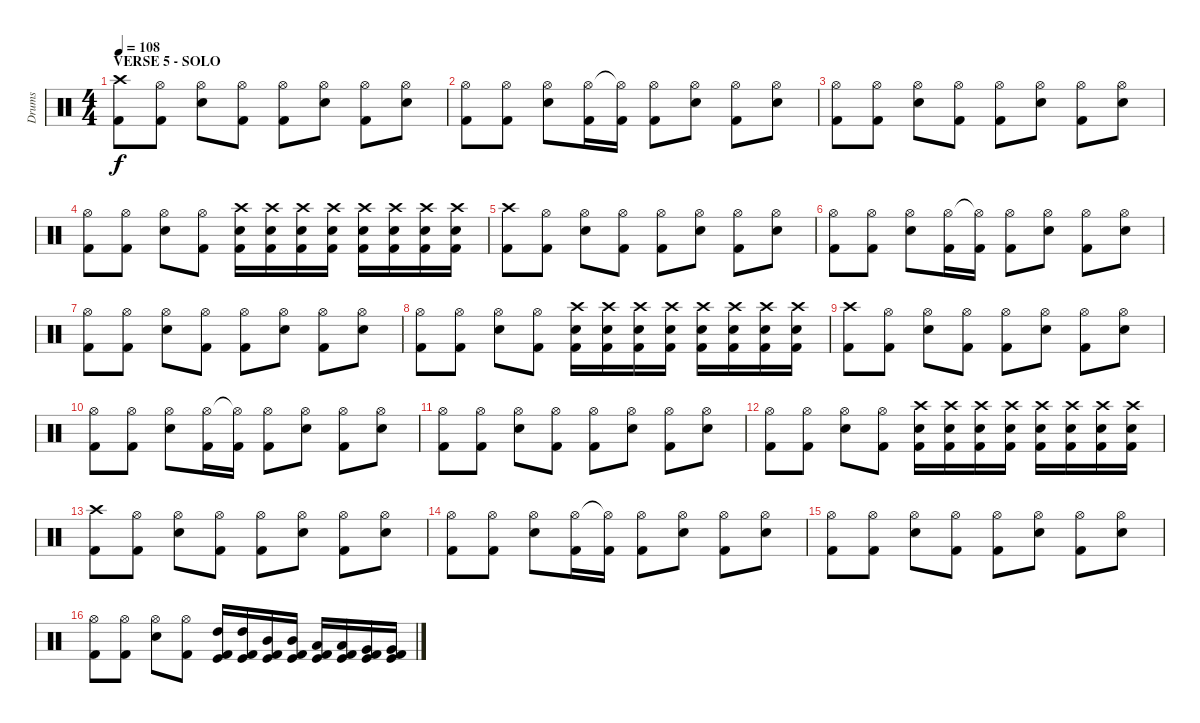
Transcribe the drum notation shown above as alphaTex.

\track ("Drums" "Drums") {instrument percussion}
\staff {score}
\articulation defaults
\ts (4 4)
\section ("" "VERSE 5 - SOLO")
\tempo 108
\clef neutral
\ks c
("Crash high (hit)" "Kick (hit) 2").8{dy f} ("Hi-Hat (open)" "Kick (hit) 2").8 ("Hi-Hat (open)" "Electric Snare (hit)").8 ("Hi-Hat (open)" "Kick (hit) 2").8 ("Hi-Hat (open)" "Kick (hit) 2").8 ("Hi-Hat (open)" "Electric Snare (hit)").8 ("Hi-Hat (open)" "Kick (hit) 2").8 ("Hi-Hat (open)" "Electric Snare (hit)").8 |
("Hi-Hat (open)" "Kick (hit) 2").8 ("Hi-Hat (open)" "Kick (hit) 2").8 ("Hi-Hat (open)" "Electric Snare (hit)").8 ("Hi-Hat (open)" "Kick (hit) 2").16 ("Hi-Hat (open)"{t} "Kick (hit) 2").16 ("Hi-Hat (open)" "Kick (hit) 2").8 ("Hi-Hat (open)" "Electric Snare (hit)").8 ("Hi-Hat (open)" "Kick (hit) 2").8 ("Hi-Hat (open)" "Electric Snare (hit)").8 |
("Hi-Hat (open)" "Kick (hit) 2").8 ("Hi-Hat (open)" "Kick (hit) 2").8 ("Hi-Hat (open)" "Electric Snare (hit)").8 ("Hi-Hat (open)" "Kick (hit) 2").8 ("Hi-Hat (open)" "Kick (hit) 2").8 ("Hi-Hat (open)" "Electric Snare (hit)").8 ("Hi-Hat (open)" "Kick (hit) 2").8 ("Hi-Hat (open)" "Electric Snare (hit)").8 |
("Hi-Hat (open)" "Kick (hit) 2").8 ("Hi-Hat (open)" "Kick (hit) 2").8 ("Hi-Hat (open)" "Electric Snare (hit)").8 ("Hi-Hat (open)" "Kick (hit) 2").8 ("Crash high (hit)" "Kick (hit) 2" "Electric Snare (hit)").16 ("Crash high (hit)" "Kick (hit) 2" "Electric Snare (hit)").16 ("Crash high (hit)" "Kick (hit) 2" "Electric Snare (hit)").16 ("Crash high (hit)" "Kick (hit) 2" "Electric Snare (hit)").16 ("Crash high (hit)" "Kick (hit) 2" "Electric Snare (hit)").16 ("Crash high (hit)" "Kick (hit) 2" "Electric Snare (hit)").16 ("Crash high (hit)" "Kick (hit) 2" "Electric Snare (hit)").16 ("Crash high (hit)" "Kick (hit) 2" "Electric Snare (hit)").16 |
("Crash high (hit)" "Kick (hit) 2").8 ("Hi-Hat (open)" "Kick (hit) 2").8 ("Hi-Hat (open)" "Electric Snare (hit)").8 ("Hi-Hat (open)" "Kick (hit) 2").8 ("Hi-Hat (open)" "Kick (hit) 2").8 ("Hi-Hat (open)" "Electric Snare (hit)").8 ("Hi-Hat (open)" "Kick (hit) 2").8 ("Hi-Hat (open)" "Electric Snare (hit)").8 |
("Hi-Hat (open)" "Kick (hit) 2").8 ("Hi-Hat (open)" "Kick (hit) 2").8 ("Hi-Hat (open)" "Electric Snare (hit)").8 ("Hi-Hat (open)" "Kick (hit) 2").16 ("Hi-Hat (open)"{t} "Kick (hit) 2").16 ("Hi-Hat (open)" "Kick (hit) 2").8 ("Hi-Hat (open)" "Electric Snare (hit)").8 ("Hi-Hat (open)" "Kick (hit) 2").8 ("Hi-Hat (open)" "Electric Snare (hit)").8 |
("Hi-Hat (open)" "Kick (hit) 2").8 ("Hi-Hat (open)" "Kick (hit) 2").8 ("Hi-Hat (open)" "Electric Snare (hit)").8 ("Hi-Hat (open)" "Kick (hit) 2").8 ("Hi-Hat (open)" "Kick (hit) 2").8 ("Hi-Hat (open)" "Electric Snare (hit)").8 ("Hi-Hat (open)" "Kick (hit) 2").8 ("Hi-Hat (open)" "Electric Snare (hit)").8 |
("Hi-Hat (open)" "Kick (hit) 2").8 ("Hi-Hat (open)" "Kick (hit) 2").8 ("Hi-Hat (open)" "Electric Snare (hit)").8 ("Hi-Hat (open)" "Kick (hit) 2").8 ("Crash high (hit)" "Kick (hit) 2" "Electric Snare (hit)").16 ("Crash high (hit)" "Kick (hit) 2" "Electric Snare (hit)").16 ("Crash high (hit)" "Kick (hit) 2" "Electric Snare (hit)").16 ("Crash high (hit)" "Kick (hit) 2" "Electric Snare (hit)").16 ("Crash high (hit)" "Kick (hit) 2" "Electric Snare (hit)").16 ("Crash high (hit)" "Kick (hit) 2" "Electric Snare (hit)").16 ("Crash high (hit)" "Kick (hit) 2" "Electric Snare (hit)").16 ("Crash high (hit)" "Kick (hit) 2" "Electric Snare (hit)").16 |
("Crash high (hit)" "Kick (hit) 2").8 ("Hi-Hat (open)" "Kick (hit) 2").8 ("Hi-Hat (open)" "Electric Snare (hit)").8 ("Hi-Hat (open)" "Kick (hit) 2").8 ("Hi-Hat (open)" "Kick (hit) 2").8 ("Hi-Hat (open)" "Electric Snare (hit)").8 ("Hi-Hat (open)" "Kick (hit) 2").8 ("Hi-Hat (open)" "Electric Snare (hit)").8 |
("Hi-Hat (open)" "Kick (hit) 2").8 ("Hi-Hat (open)" "Kick (hit) 2").8 ("Hi-Hat (open)" "Electric Snare (hit)").8 ("Hi-Hat (open)" "Kick (hit) 2").16 ("Hi-Hat (open)"{t} "Kick (hit) 2").16 ("Hi-Hat (open)" "Kick (hit) 2").8 ("Hi-Hat (open)" "Electric Snare (hit)").8 ("Hi-Hat (open)" "Kick (hit) 2").8 ("Hi-Hat (open)" "Electric Snare (hit)").8 |
("Hi-Hat (open)" "Kick (hit) 2").8 ("Hi-Hat (open)" "Kick (hit) 2").8 ("Hi-Hat (open)" "Electric Snare (hit)").8 ("Hi-Hat (open)" "Kick (hit) 2").8 ("Hi-Hat (open)" "Kick (hit) 2").8 ("Hi-Hat (open)" "Electric Snare (hit)").8 ("Hi-Hat (open)" "Kick (hit) 2").8 ("Hi-Hat (open)" "Electric Snare (hit)").8 |
("Hi-Hat (open)" "Kick (hit) 2").8 ("Hi-Hat (open)" "Kick (hit) 2").8 ("Hi-Hat (open)" "Electric Snare (hit)").8 ("Hi-Hat (open)" "Kick (hit) 2").8 ("Crash high (hit)" "Kick (hit) 2" "Electric Snare (hit)").16 ("Crash high (hit)" "Kick (hit) 2" "Electric Snare (hit)").16 ("Crash high (hit)" "Kick (hit) 2" "Electric Snare (hit)").16 ("Crash high (hit)" "Kick (hit) 2" "Electric Snare (hit)").16 ("Crash high (hit)" "Kick (hit) 2" "Electric Snare (hit)").16 ("Crash high (hit)" "Kick (hit) 2" "Electric Snare (hit)").16 ("Crash high (hit)" "Kick (hit) 2" "Electric Snare (hit)").16 ("Crash high (hit)" "Kick (hit) 2" "Electric Snare (hit)").16 |
("Crash high (hit)" "Kick (hit) 2").8 ("Hi-Hat (open)" "Kick (hit) 2").8 ("Hi-Hat (open)" "Electric Snare (hit)").8 ("Hi-Hat (open)" "Kick (hit) 2").8 ("Hi-Hat (open)" "Kick (hit) 2").8 ("Hi-Hat (open)" "Electric Snare (hit)").8 ("Hi-Hat (open)" "Kick (hit) 2").8 ("Hi-Hat (open)" "Electric Snare (hit)").8 |
("Hi-Hat (open)" "Kick (hit) 2").8 ("Hi-Hat (open)" "Kick (hit) 2").8 ("Hi-Hat (open)" "Electric Snare (hit)").8 ("Hi-Hat (open)" "Kick (hit) 2").16 ("Hi-Hat (open)"{t} "Kick (hit) 2").16 ("Hi-Hat (open)" "Kick (hit) 2").8 ("Hi-Hat (open)" "Electric Snare (hit)").8 ("Hi-Hat (open)" "Kick (hit) 2").8 ("Hi-Hat (open)" "Electric Snare (hit)").8 |
("Hi-Hat (open)" "Kick (hit) 2").8 ("Hi-Hat (open)" "Kick (hit) 2").8 ("Hi-Hat (open)" "Electric Snare (hit)").8 ("Hi-Hat (open)" "Kick (hit) 2").8 ("Hi-Hat (open)" "Kick (hit) 2").8 ("Hi-Hat (open)" "Electric Snare (hit)").8 ("Hi-Hat (open)" "Kick (hit) 2").8 ("Hi-Hat (open)" "Electric Snare (hit)").8 |
("Hi-Hat (open)" "Kick (hit) 2").8 ("Hi-Hat (open)" "Kick (hit) 2").8 ("Hi-Hat (open)" "Electric Snare (hit)").8 ("Hi-Hat (open)" "Kick (hit) 2").8 ("Kick (hit)" "Kick (hit) 2" "High Tom (hit)").16 ("Kick (hit)" "Kick (hit) 2" "High Tom (hit)").16 ("Kick (hit)" "Kick (hit) 2" "Mid Tom (hit)").16 ("Kick (hit)" "Kick (hit) 2" "Mid Tom (hit)").16 ("Kick (hit)" "Kick (hit) 2" "Low Tom (hit)").16 ("Kick (hit)" "Kick (hit) 2" "Low Tom (hit)").16 ("Kick (hit)" "Kick (hit) 2" "Very Low Tom (hit)").16 ("Kick (hit)" "Kick (hit) 2" "Very Low Tom (hit)").16
